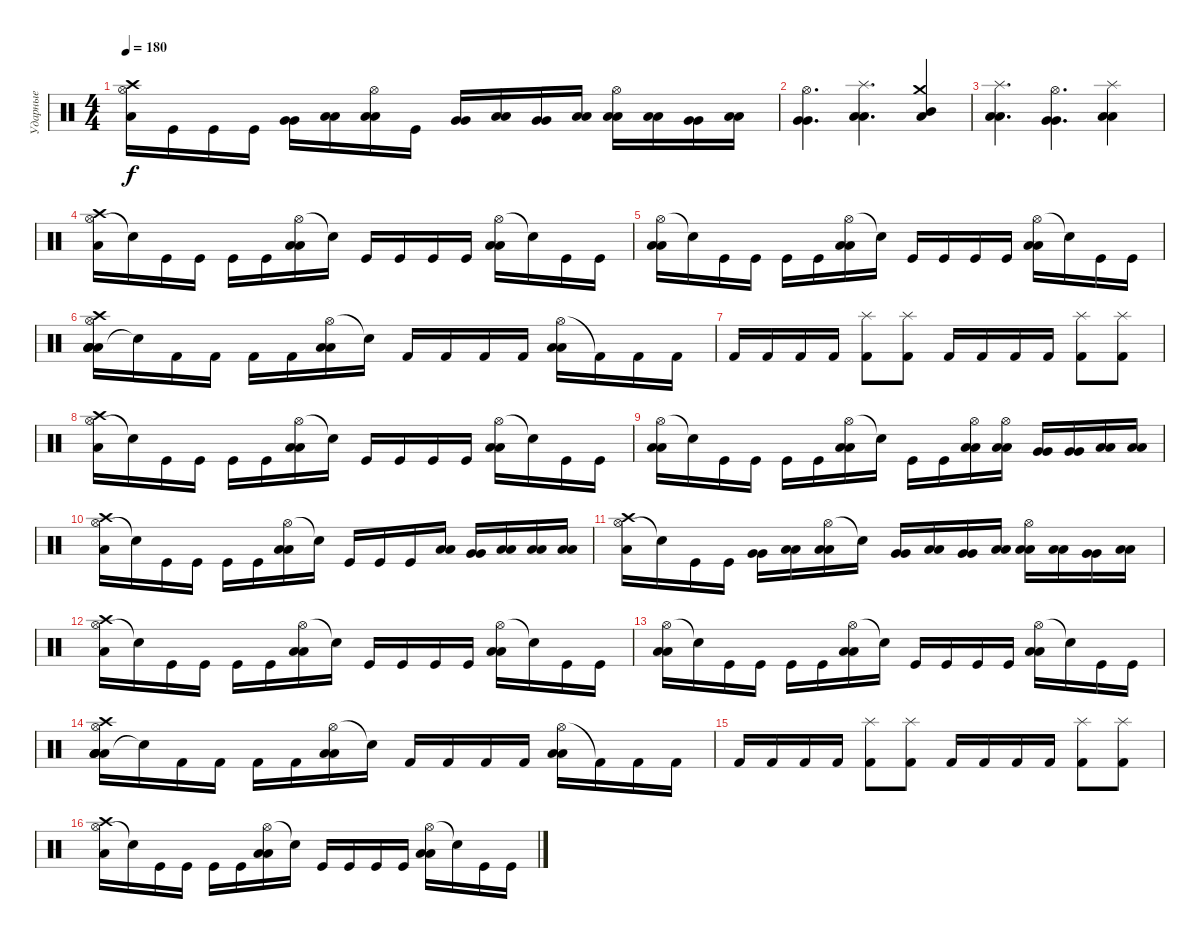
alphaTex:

\track ("Ударные" "Ударные") {instrument percussion}
\staff {score}
\articulation defaults
\ts (4 4)
\tempo 180
\clef neutral
\ks c
("Hi-Hat (open)" "Crash high (hit)" "Low Tom (hit)").16{dy f volume 13 balance 8} "Kick (hit)".16 "Kick (hit)".16 "Kick (hit)".16 ("Very Low Tom (hit)" "Very Low Tom (hit)").16{balance 10} ("Low Floor Tom (hit)" "Low Floor Tom (hit)").16{balance 5} ("Hi-Hat (open)" "Low Tom (hit)" "Low Tom (hit)").16{balance 8} "Kick (hit)".16 ("Very Low Tom (hit)" "Very Low Tom (hit)").16{balance 10} ("Low Floor Tom (hit)" "Low Floor Tom (hit)").16 ("Very Low Tom (hit)" "Very Low Tom (hit)").16{balance 10} ("Low Floor Tom (hit)" "Low Floor Tom (hit)").16 ("Hi-Hat (open)" "Low Tom (hit)" "Low Tom (hit)").16{balance 8} ("Low Floor Tom (hit)" "Low Floor Tom (hit)").16{balance 6} ("Very Low Tom (hit)" "Very Low Tom (hit)").16 ("Low Floor Tom (hit)" "Low Floor Tom (hit)").16{balance 5} |
("Hi-Hat (open)" "Very Low Tom (hit)" "Very Low Tom (hit)").4{d} ("Splash (hit)" "Low Floor Tom (hit)" "Low Floor Tom (hit)").4{d} ("Crash medium (hit)" "Low Floor Tom (hit)" "Mid Tom (hit)").4 |
("Splash (hit)" "Low Tom (hit)" "Low Tom (hit)").4{d} ("Hi-Hat (open)" "Very Low Tom (hit)" "Very Low Tom (hit)").4{d} ("Splash (hit)" "Low Tom (hit)" "Low Tom (hit)").4 |
("Hi-Hat (open)" "Crash high (hit)" "Low Tom (hit)").16{volume 13} "Snare (hit)"{t}.16 "Kick (hit)".16 "Kick (hit)".16 "Kick (hit)".16 "Kick (hit)".16 ("Hi-Hat (open)" "Low Tom (hit)" "Low Tom (hit)").16 "Snare (hit)"{t}.16 "Kick (hit)".16 "Kick (hit)".16 "Kick (hit)".16 "Kick (hit)".16 ("Hi-Hat (open)" "Low Tom (hit)" "Low Tom (hit)").16 "Snare (hit)"{t}.16 "Kick (hit)".16 "Kick (hit)".16 |
("Hi-Hat (open)" "Low Tom (hit)" "Low Tom (hit)").16 "Snare (hit)"{t}.16 "Kick (hit)".16 "Kick (hit)".16 "Kick (hit)".16 "Kick (hit)".16 ("Hi-Hat (open)" "Low Tom (hit)" "Low Tom (hit)").16 "Snare (hit)"{t}.16 "Kick (hit)".16 "Kick (hit)".16 "Kick (hit)".16 "Kick (hit)".16 ("Hi-Hat (open)" "Low Tom (hit)" "Low Tom (hit)").16 "Snare (hit)"{t}.16 "Kick (hit)".16 "Kick (hit)".16 |
("Low Floor Tom (hit)" "Hi-Hat (open)" "Crash high (hit)" "Low Tom (hit)" "Low Floor Tom (hit)" "Low Floor Tom (hit)").16 "Snare (hit)"{t}.16 "Kick (hit) 2".16 "Kick (hit) 2".16 "Kick (hit) 2".16 "Kick (hit) 2".16 ("Hi-Hat (open)" "Low Tom (hit)" "Low Tom (hit)").16 "Snare (hit)"{t}.16 "Kick (hit) 2".16 "Kick (hit) 2".16 "Kick (hit) 2".16 "Kick (hit) 2".16 ("Hi-Hat (open)" "Low Tom (hit)" "Low Tom (hit)").16 "Kick (hit) 2"{t}.16 "Kick (hit) 2".16 "Kick (hit) 2".16 |
"Kick (hit) 2".16 "Kick (hit) 2".16 "Kick (hit) 2".16 "Kick (hit) 2".16 ("Splash (hit)" "Kick (hit) 2").8 ("Splash (hit)" "Kick (hit) 2").8 "Kick (hit) 2".16 "Kick (hit) 2".16 "Kick (hit) 2".16 "Kick (hit) 2".16 ("Splash (hit)" "Kick (hit) 2").8 ("Splash (hit)" "Kick (hit) 2").8 |
("Hi-Hat (open)" "Crash high (hit)" "Low Tom (hit)").16{volume 13} "Snare (hit)"{t}.16 "Kick (hit)".16 "Kick (hit)".16 "Kick (hit)".16 "Kick (hit)".16 ("Hi-Hat (open)" "Low Tom (hit)" "Low Tom (hit)").16 "Snare (hit)"{t}.16 "Kick (hit)".16 "Kick (hit)".16 "Kick (hit)".16 "Kick (hit)".16 ("Hi-Hat (open)" "Low Tom (hit)" "Low Tom (hit)").16 "Snare (hit)"{t}.16 "Kick (hit)".16 "Kick (hit)".16 |
("Hi-Hat (open)" "Low Tom (hit)" "Low Tom (hit)").16 "Snare (hit)"{t}.16 "Kick (hit)".16 "Kick (hit)".16 "Kick (hit)".16 "Kick (hit)".16 ("Hi-Hat (open)" "Low Tom (hit)" "Low Tom (hit)").16 "Snare (hit)"{t}.16 "Kick (hit)".16 "Kick (hit)".16 ("Hi-Hat (open)" "Low Tom (hit)" "Low Tom (hit)").16 ("Hi-Hat (open)" "Low Tom (hit)" "Low Tom (hit)").16 ("Very Low Tom (hit)" "Very Low Tom (hit)").16{balance 10} ("Very Low Tom (hit)" "Very Low Tom (hit)").16 ("Low Floor Tom (hit)" "Low Floor Tom (hit)").16{balance 6} ("Low Floor Tom (hit)" "Low Floor Tom (hit)").16 |
("Hi-Hat (open)" "Crash high (hit)" "Low Tom (hit)").16{balance 8} "Snare (hit)"{t}.16 "Kick (hit)".16 "Kick (hit)".16 "Kick (hit)".16 "Kick (hit)".16 ("Hi-Hat (open)" "Low Tom (hit)" "Low Tom (hit)").16 "Snare (hit)"{t}.16 "Kick (hit)".16 "Kick (hit)".16 "Kick (hit)".16 ("Low Tom (hit)" "Low Tom (hit)").16 ("Very Low Tom (hit)" "Very Low Tom (hit)").16{balance 10} ("Low Floor Tom (hit)" "Low Floor Tom (hit)").16{balance 6} ("Low Floor Tom (hit)" "Low Floor Tom (hit)").16 ("Low Floor Tom (hit)" "Low Floor Tom (hit)").16 |
("Hi-Hat (open)" "Crash high (hit)" "Low Tom (hit)").16{volume 13 balance 8} "Snare (hit)"{t}.16 "Kick (hit)".16 "Kick (hit)".16 ("Very Low Tom (hit)" "Very Low Tom (hit)").16{balance 10} ("Low Floor Tom (hit)" "Low Floor Tom (hit)").16{balance 5} ("Hi-Hat (open)" "Low Tom (hit)" "Low Tom (hit)").16{balance 8} "Snare (hit)"{t}.16 ("Very Low Tom (hit)" "Very Low Tom (hit)").16{balance 10} ("Low Floor Tom (hit)" "Low Floor Tom (hit)").16 ("Very Low Tom (hit)" "Very Low Tom (hit)").16{balance 10} ("Low Floor Tom (hit)" "Low Floor Tom (hit)").16 ("Hi-Hat (open)" "Low Tom (hit)" "Low Tom (hit)").16{balance 8} ("Low Floor Tom (hit)" "Low Floor Tom (hit)").16{balance 6} ("Very Low Tom (hit)" "Very Low Tom (hit)").16 ("Low Floor Tom (hit)" "Low Floor Tom (hit)").16{balance 5} |
("Hi-Hat (open)" "Crash high (hit)" "Low Tom (hit)").16{volume 13} "Snare (hit)"{t}.16 "Kick (hit)".16 "Kick (hit)".16 "Kick (hit)".16 "Kick (hit)".16 ("Hi-Hat (open)" "Low Tom (hit)" "Low Tom (hit)").16 "Snare (hit)"{t}.16 "Kick (hit)".16 "Kick (hit)".16 "Kick (hit)".16 "Kick (hit)".16 ("Hi-Hat (open)" "Low Tom (hit)" "Low Tom (hit)").16 "Snare (hit)"{t}.16 "Kick (hit)".16 "Kick (hit)".16 |
("Hi-Hat (open)" "Low Tom (hit)" "Low Tom (hit)").16 "Snare (hit)"{t}.16 "Kick (hit)".16 "Kick (hit)".16 "Kick (hit)".16 "Kick (hit)".16 ("Hi-Hat (open)" "Low Tom (hit)" "Low Tom (hit)").16 "Snare (hit)"{t}.16 "Kick (hit)".16 "Kick (hit)".16 "Kick (hit)".16 "Kick (hit)".16 ("Hi-Hat (open)" "Low Tom (hit)" "Low Tom (hit)").16 "Snare (hit)"{t}.16 "Kick (hit)".16 "Kick (hit)".16 |
("Low Floor Tom (hit)" "Hi-Hat (open)" "Crash high (hit)" "Low Tom (hit)" "Low Floor Tom (hit)" "Low Floor Tom (hit)").16 "Snare (hit)"{t}.16 "Kick (hit) 2".16 "Kick (hit) 2".16 "Kick (hit) 2".16 "Kick (hit) 2".16 ("Hi-Hat (open)" "Low Tom (hit)" "Low Tom (hit)").16 "Snare (hit)"{t}.16 "Kick (hit) 2".16 "Kick (hit) 2".16 "Kick (hit) 2".16 "Kick (hit) 2".16 ("Hi-Hat (open)" "Low Tom (hit)" "Low Tom (hit)").16 "Kick (hit) 2"{t}.16 "Kick (hit) 2".16 "Kick (hit) 2".16 |
"Kick (hit) 2".16 "Kick (hit) 2".16 "Kick (hit) 2".16 "Kick (hit) 2".16 ("Splash (hit)" "Kick (hit) 2").8 ("Splash (hit)" "Kick (hit) 2").8 "Kick (hit) 2".16 "Kick (hit) 2".16 "Kick (hit) 2".16 "Kick (hit) 2".16 ("Splash (hit)" "Kick (hit) 2").8 ("Splash (hit)" "Kick (hit) 2").8 |
("Hi-Hat (open)" "Crash high (hit)" "Low Tom (hit)").16{volume 13} "Snare (hit)"{t}.16 "Kick (hit)".16 "Kick (hit)".16 "Kick (hit)".16 "Kick (hit)".16 ("Hi-Hat (open)" "Low Tom (hit)" "Low Tom (hit)").16 "Snare (hit)"{t}.16 "Kick (hit)".16 "Kick (hit)".16 "Kick (hit)".16 "Kick (hit)".16 ("Hi-Hat (open)" "Low Tom (hit)" "Low Tom (hit)").16 "Snare (hit)"{t}.16 "Kick (hit)".16 "Kick (hit)".16
